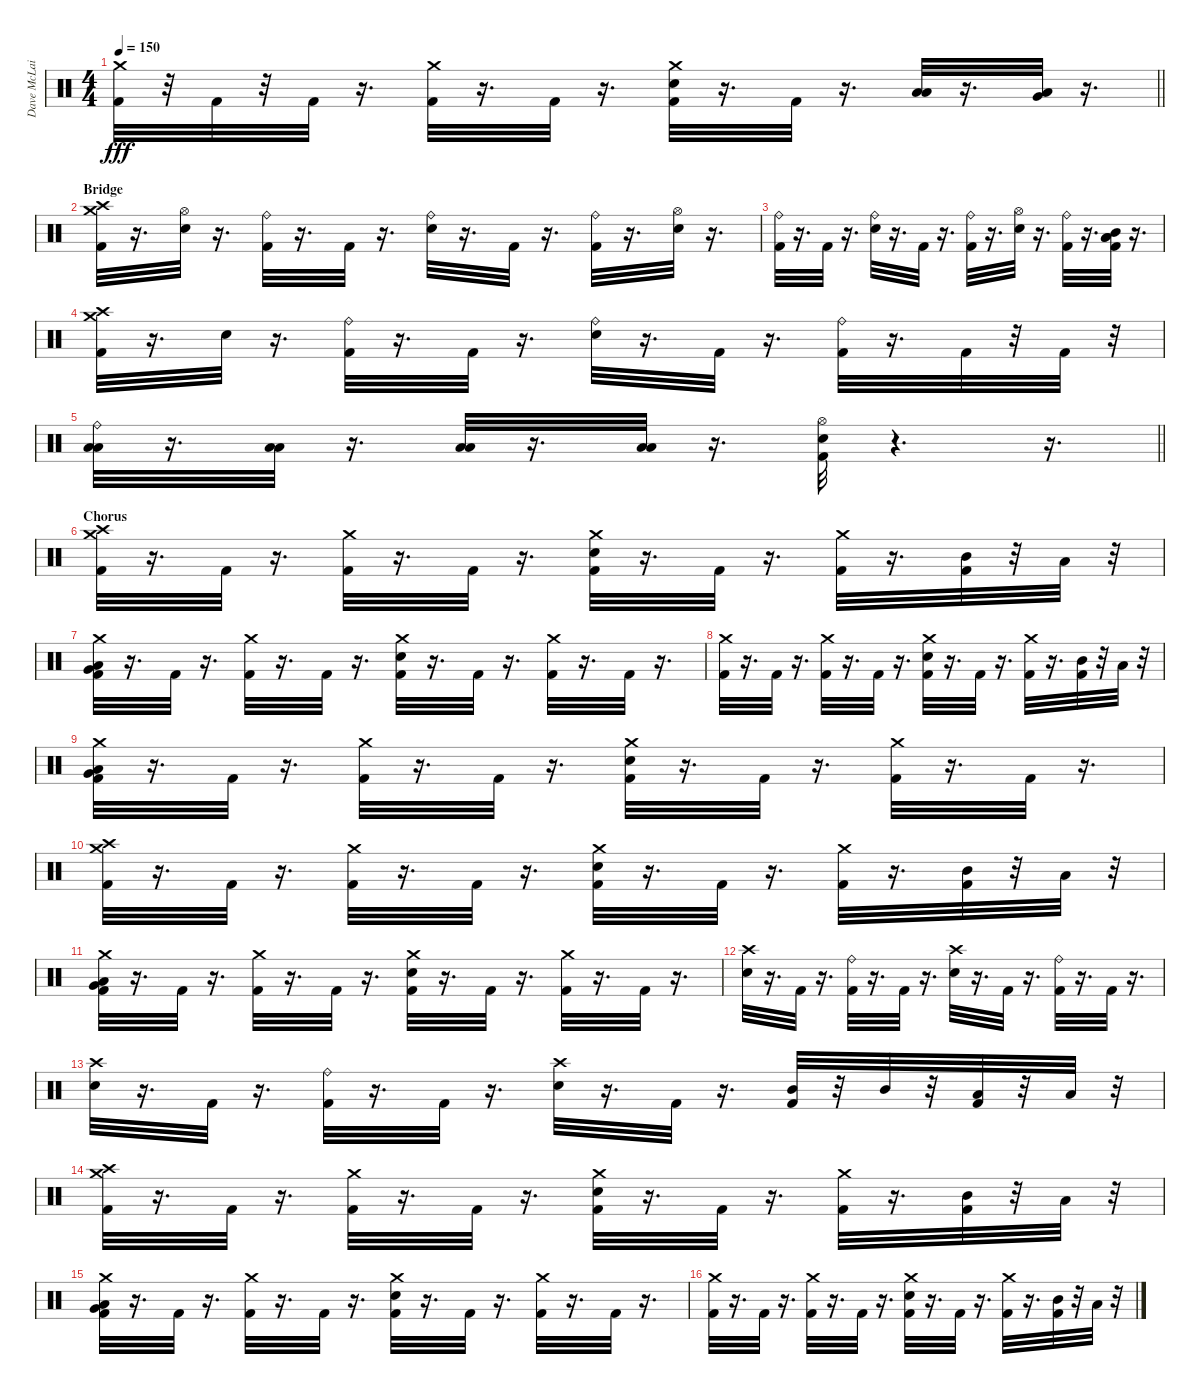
\track ("Dave McLain" "Dave McLai") {instrument percussion}
\staff {score}
\articulation defaults
\ts (4 4)
\tempo 150
\clef neutral
\barLineRight lightlight
\ks c
("Crash medium (hit)" "Kick (hit) 2").32{dy fff} r.32 "Kick (hit) 2".32 r.32 "Kick (hit) 2".32 r.16{d} ("Crash medium (hit)" "Kick (hit) 2").32 r.16{d} "Kick (hit) 2".32 r.16{d} ("Snare (hit) 2" "Crash medium (hit)" "Kick (hit) 2").32 r.16{d} "Kick (hit) 2".32 r.16{d} ("Low Tom (hit)" "Low Floor Tom (hit)").32 r.16{d} ("Low Floor Tom (hit)" "Very Low Tom (hit)").32 r.16{d} |
\section ("" "Bridge")
("Crash medium (hit)" "Crash high (hit)" "Kick (hit) 2").32 r.16{d} ("Hi-Hat (open)" "Snare (hit) 2").32 r.16{d} ("Ride (bell)" "Kick (hit) 2").32 r.16{d} "Kick (hit) 2".32 r.16{d} ("Ride (bell)" "Snare (hit) 2").32 r.16{d} "Kick (hit) 2".32 r.16{d} ("Ride (bell)" "Kick (hit) 2").32 r.16{d} ("Hi-Hat (open)" "Snare (hit) 2").32 r.16{d} |
("Ride (bell)" "Kick (hit) 2").32 r.16{d} "Kick (hit) 2".32 r.16{d} ("Ride (bell)" "Snare (hit) 2").32 r.16{d} "Kick (hit) 2".32 r.16{d} ("Ride (bell)" "Kick (hit) 2").32 r.16{d} ("Hi-Hat (open)" "Snare (hit) 2").32 r.16{d} ("Ride (bell)" "Kick (hit) 2").32 r.16{d} ("Mid Tom (hit)" "Low Tom (hit)" "Low Floor Tom (hit)" "Kick (hit) 2").32 r.16{d} |
("Kick (hit) 2" "Crash high (hit)" "Crash medium (hit)").32 r.16{d} "Snare (hit) 2".32 r.16{d} ("Kick (hit) 2" "Ride (bell)").32 r.16{d} "Kick (hit) 2".32 r.16{d} ("Snare (hit) 2" "Ride (bell)").32 r.16{d} "Kick (hit) 2".32 r.16{d} ("Kick (hit) 2" "Ride (bell)").32 r.16{d} "Kick (hit) 2".32 r.32 "Kick (hit) 2".32 r.32 |
\barLineRight lightlight
("Low Tom (hit)" "Low Floor Tom (hit)" "Ride (bell)").32 r.16{d} ("Low Tom (hit)" "Low Floor Tom (hit)").32 r.16{d} ("Low Floor Tom (hit)" "Low Tom (hit)").32 r.16{d} ("Low Floor Tom (hit)" "Low Tom (hit)").32 r.16{d} ("Kick (hit) 2" "Snare (hit) 2" "Hi-Hat (open)").32 r.4{d} r.16{d} |
\section ("" "Chorus")
("Crash high (hit)" "Crash medium (hit)" "Kick (hit) 2").32 r.16{d} "Kick (hit) 2".32 r.16{d} ("Crash medium (hit)" "Kick (hit) 2").32 r.16{d} "Kick (hit) 2".32 r.16{d} ("Crash medium (hit)" "Snare (hit) 2" "Kick (hit) 2").32 r.16{d} "Kick (hit) 2".32 r.16{d} ("Crash medium (hit)" "Kick (hit) 2").32 r.16{d} ("Mid Tom (hit)" "Kick (hit) 2").32 r.32 "Low Tom (hit)".32 r.32 |
("Low Floor Tom (hit)" "Very Low Tom (hit)" "Crash medium (hit)" "Kick (hit) 2").32 r.16{d} "Kick (hit) 2".32 r.16{d} ("Crash medium (hit)" "Kick (hit) 2").32 r.16{d} "Kick (hit) 2".32 r.16{d} ("Crash medium (hit)" "Snare (hit) 2" "Kick (hit) 2").32 r.16{d} "Kick (hit) 2".32 r.16{d} ("Crash medium (hit)" "Kick (hit) 2").32 r.16{d} "Kick (hit) 2".32 r.16{d} |
("Crash medium (hit)" "Kick (hit) 2").32 r.16{d} "Kick (hit) 2".32 r.16{d} ("Crash medium (hit)" "Kick (hit) 2").32 r.16{d} "Kick (hit) 2".32 r.16{d} ("Crash medium (hit)" "Snare (hit) 2" "Kick (hit) 2").32 r.16{d} "Kick (hit) 2".32 r.16{d} ("Crash medium (hit)" "Kick (hit) 2").32 r.16{d} ("Mid Tom (hit)" "Kick (hit) 2").32 r.32 "Low Tom (hit)".32 r.32 |
("Very Low Tom (hit)" "Low Floor Tom (hit)" "Crash medium (hit)" "Kick (hit) 2").32 r.16{d} "Kick (hit) 2".32 r.16{d} ("Crash medium (hit)" "Kick (hit) 2").32 r.16{d} "Kick (hit) 2".32 r.16{d} ("Crash medium (hit)" "Snare (hit) 2" "Kick (hit) 2").32 r.16{d} "Kick (hit) 2".32 r.16{d} ("Crash medium (hit)" "Kick (hit) 2").32 r.16{d} "Kick (hit) 2".32 r.16{d} |
("Crash high (hit)" "Crash medium (hit)" "Kick (hit) 2").32 r.16{d} "Kick (hit) 2".32 r.16{d} ("Crash medium (hit)" "Kick (hit) 2").32 r.16{d} "Kick (hit) 2".32 r.16{d} ("Crash medium (hit)" "Snare (hit) 2" "Kick (hit) 2").32 r.16{d} "Kick (hit) 2".32 r.16{d} ("Crash medium (hit)" "Kick (hit) 2").32 r.16{d} ("Mid Tom (hit)" "Kick (hit) 2").32 r.32 "Low Tom (hit)".32 r.32 |
("Low Floor Tom (hit)" "Very Low Tom (hit)" "Crash medium (hit)" "Kick (hit) 2").32 r.16{d} "Kick (hit) 2".32 r.16{d} ("Crash medium (hit)" "Kick (hit) 2").32 r.16{d} "Kick (hit) 2".32 r.16{d} ("Crash medium (hit)" "Snare (hit) 2" "Kick (hit) 2").32 r.16{d} "Kick (hit) 2".32 r.16{d} ("Crash medium (hit)" "Kick (hit) 2").32 r.16{d} "Kick (hit) 2".32 r.16{d} |
("Snare (hit) 2" "Crash high (hit)").32 r.16{d} "Kick (hit) 2".32 r.16{d} ("Ride (bell)" "Kick (hit) 2").32 r.16{d} "Kick (hit) 2".32 r.16{d} ("Crash high (hit)" "Snare (hit) 2").32 r.16{d} "Kick (hit) 2".32 r.16{d} ("Ride (bell)" "Kick (hit) 2").32 r.16{d} "Kick (hit) 2".32 r.16{d} |
("Crash high (hit)" "Snare (hit) 2").32 r.16{d} "Kick (hit) 2".32 r.16{d} ("Ride (bell)" "Kick (hit) 2").32 r.16{d} "Kick (hit) 2".32 r.16{d} ("Crash high (hit)" "Snare (hit) 2").32 r.16{d} "Kick (hit) 2".32 r.16{d} ("Mid Tom (hit)" "Kick (hit) 2").32 r.32 "Mid Tom (hit)".32 r.32 ("Low Tom (hit)" "Kick (hit) 2").32 r.32 "Low Tom (hit)".32 r.32 |
("Crash high (hit)" "Crash medium (hit)" "Kick (hit) 2").32 r.16{d} "Kick (hit) 2".32 r.16{d} ("Crash medium (hit)" "Kick (hit) 2").32 r.16{d} "Kick (hit) 2".32 r.16{d} ("Crash medium (hit)" "Snare (hit) 2" "Kick (hit) 2").32 r.16{d} "Kick (hit) 2".32 r.16{d} ("Crash medium (hit)" "Kick (hit) 2").32 r.16{d} ("Mid Tom (hit)" "Kick (hit) 2").32 r.32 "Low Tom (hit)".32 r.32 |
("Low Floor Tom (hit)" "Very Low Tom (hit)" "Crash medium (hit)" "Kick (hit) 2").32 r.16{d} "Kick (hit) 2".32 r.16{d} ("Crash medium (hit)" "Kick (hit) 2").32 r.16{d} "Kick (hit) 2".32 r.16{d} ("Crash medium (hit)" "Snare (hit) 2" "Kick (hit) 2").32 r.16{d} "Kick (hit) 2".32 r.16{d} ("Crash medium (hit)" "Kick (hit) 2").32 r.16{d} "Kick (hit) 2".32 r.16{d} |
("Crash medium (hit)" "Kick (hit) 2").32 r.16{d} "Kick (hit) 2".32 r.16{d} ("Crash medium (hit)" "Kick (hit) 2").32 r.16{d} "Kick (hit) 2".32 r.16{d} ("Crash medium (hit)" "Snare (hit) 2" "Kick (hit) 2").32 r.16{d} "Kick (hit) 2".32 r.16{d} ("Crash medium (hit)" "Kick (hit) 2").32 r.16{d} ("Mid Tom (hit)" "Kick (hit) 2").32 r.32 "Low Tom (hit)".32 r.32
